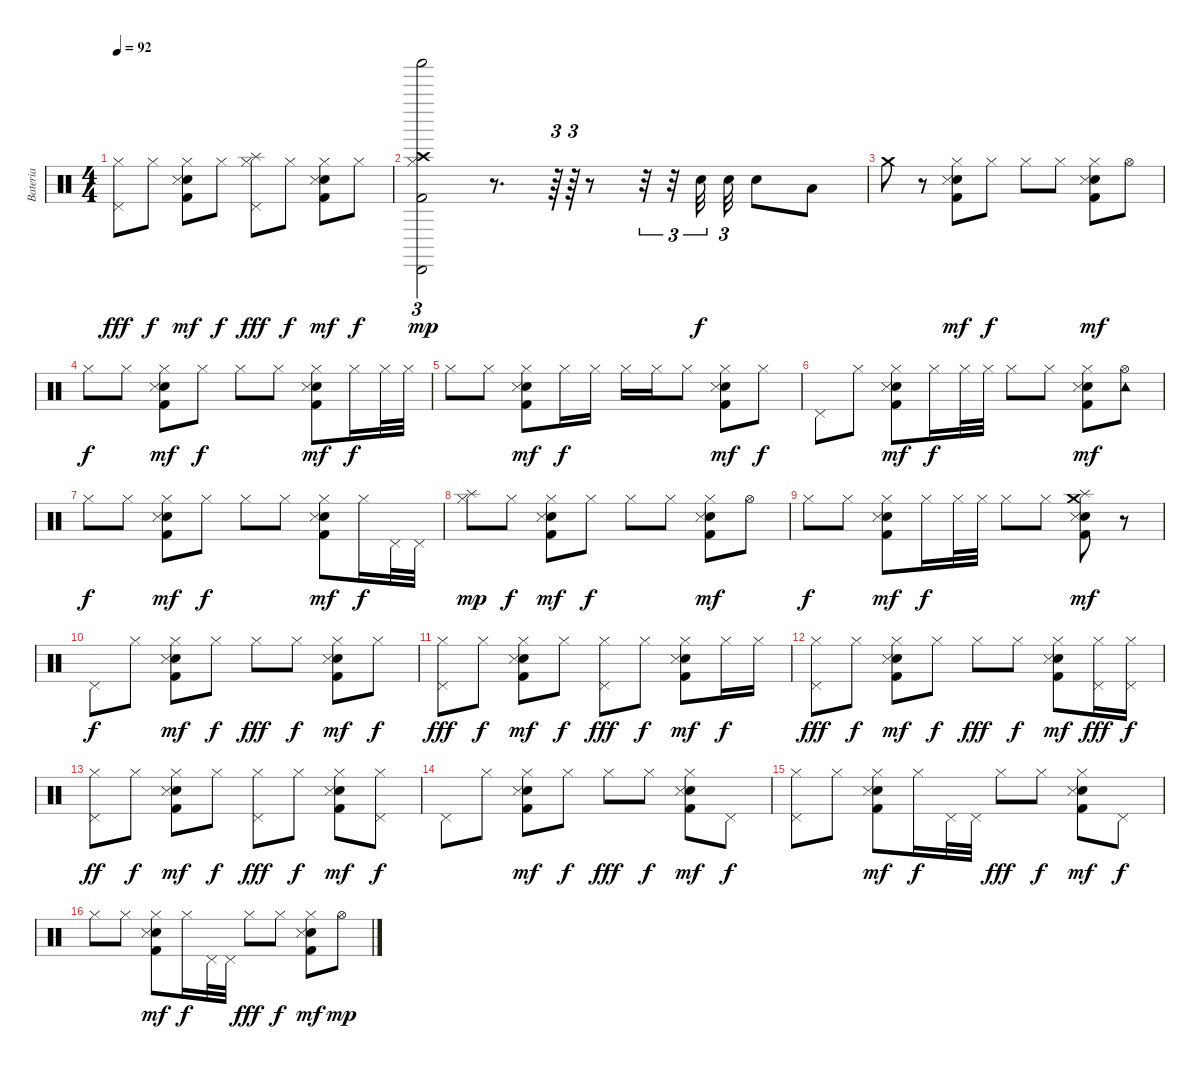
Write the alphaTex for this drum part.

\track ("Bateria" "Bateria") {instrument percussion}
\staff {score}
\articulation defaults
\ts (4 4)
\tempo 92
\clef neutral
\ks c
("Hi-Hat (closed)" "Pedal Hi-Hat (hit)").8{dy fff} "Hi-Hat (closed)".8{dy f} ("Hi-Hat (closed)" "Electric Snare (hit)" "Snare (side stick) 3" "Kick (hit) 2").8{dy mf} "Hi-Hat (closed)".8{dy f} ("Splash (hit)" "Hi-Hat (closed)" "Pedal Hi-Hat (hit)").8{dy fff} "Hi-Hat (closed)".8{dy f} ("Hi-Hat (closed)" "Electric Snare (hit)" "Snare (side stick) 3" "Kick (hit) 2").8{dy mf} "Hi-Hat (closed)".8{dy f} |
("Hi-Hat (closed)" "Cabasa (hit)" "Shaker (hit)" "Crash high (hit)" "Kick (hit) 2").2{tu (3 2) dy mp} r.8{d} r.64{tu (3 2)} r.64{tu (3 2)} r.8 r.32{tu (3 2)} r.32{tu (3 2)} "Electric Snare (hit)".32{tu (3 2) dy f} "Electric Snare (hit)".32{tu (3 2)} "Electric Snare (hit)".8 "Low Tom (hit)".8 |
"Crash medium (hit)".8 r.8 ("Hi-Hat (closed)" "Electric Snare (hit)" "Snare (side stick) 3" "Kick (hit) 2").8{dy mf} "Hi-Hat (closed)".8{dy f} "Hi-Hat (closed)".8 "Hi-Hat (closed)".8 ("Hi-Hat (closed)" "Electric Snare (hit)" "Snare (side stick) 3" "Kick (hit) 2").8{dy mf} "Hi-Hat (open)".8 |
"Hi-Hat (closed)".8{dy f} "Hi-Hat (closed)".8 ("Hi-Hat (closed)" "Electric Snare (hit)" "Snare (side stick) 3" "Kick (hit) 2").8{dy mf} "Hi-Hat (closed)".8{dy f} "Hi-Hat (closed)".8 "Hi-Hat (closed)".8 ("Hi-Hat (closed)" "Electric Snare (hit)" "Snare (side stick) 3" "Kick (hit) 2").8{dy mf} "Hi-Hat (closed)".16{dy f} "Hi-Hat (closed)".32 "Hi-Hat (closed)".32 |
"Hi-Hat (closed)".8 "Hi-Hat (closed)".8 ("Hi-Hat (closed)" "Electric Snare (hit)" "Snare (side stick) 3" "Kick (hit) 2").8{dy mf} "Hi-Hat (closed)".16{dy f} "Hi-Hat (closed)".16 "Hi-Hat (closed)".16 "Hi-Hat (closed)".16 "Hi-Hat (closed)".8 ("Hi-Hat (closed)" "Electric Snare (hit)" "Snare (side stick) 3" "Kick (hit) 2").8{dy mf} "Hi-Hat (closed)".8{dy f} |
"Pedal Hi-Hat (hit)".8 "Hi-Hat (closed)".8 ("Hi-Hat (closed)" "Electric Snare (hit)" "Snare (side stick) 3" "Kick (hit) 2").8{dy mf} "Hi-Hat (closed)".16{dy f} "Hi-Hat (closed)".32 "Hi-Hat (closed)".32 "Hi-Hat (closed)".8 "Hi-Hat (closed)".8 ("Hi-Hat (closed)" "Electric Snare (hit)" "Snare (side stick) 3" "Kick (hit) 2").8{dy mf} ("Tambourine (hit)" "Hi-Hat (open)").8 |
"Hi-Hat (closed)".8{dy f} "Hi-Hat (closed)".8 ("Hi-Hat (closed)" "Electric Snare (hit)" "Snare (side stick) 3" "Kick (hit) 2").8{dy mf} "Hi-Hat (closed)".8{dy f} "Hi-Hat (closed)".8 "Hi-Hat (closed)".8 ("Hi-Hat (closed)" "Electric Snare (hit)" "Snare (side stick) 3" "Kick (hit) 2").8{dy mf} "Hi-Hat (closed)".16{dy f} "Pedal Hi-Hat (hit)".32 "Pedal Hi-Hat (hit)".32 |
("Splash (hit)" "Hi-Hat (closed)").8{dy mp} "Hi-Hat (closed)".8{dy f} ("Hi-Hat (closed)" "Electric Snare (hit)" "Snare (side stick) 3" "Kick (hit) 2").8{dy mf} "Hi-Hat (closed)".8{dy f} "Hi-Hat (closed)".8 "Hi-Hat (closed)".8 ("Hi-Hat (closed)" "Electric Snare (hit)" "Snare (side stick) 3" "Kick (hit) 2").8{dy mf} "Hi-Hat (open)".8 |
"Hi-Hat (closed)".8{dy f} "Hi-Hat (closed)".8 ("Hi-Hat (closed)" "Electric Snare (hit)" "Snare (side stick) 3" "Kick (hit) 2").8{dy mf} "Hi-Hat (closed)".16{dy f} "Hi-Hat (closed)".32 "Hi-Hat (closed)".32 "Hi-Hat (closed)".8 "Hi-Hat (closed)".8 ("Crash medium (hit)" "Splash (hit)" "Electric Snare (hit)" "Snare (side stick) 3" "Kick (hit) 2").8{dy mf} r.8 |
"Pedal Hi-Hat (hit)".8{dy f} "Hi-Hat (closed)".8 ("Hi-Hat (closed)" "Electric Snare (hit)" "Snare (side stick) 3" "Kick (hit) 2").8{dy mf} "Hi-Hat (closed)".8{dy f} "Hi-Hat (closed)".8{dy fff} "Hi-Hat (closed)".8{dy f} ("Hi-Hat (closed)" "Electric Snare (hit)" "Snare (side stick) 3" "Kick (hit) 2").8{dy mf} "Hi-Hat (closed)".8{dy f} |
("Hi-Hat (closed)" "Pedal Hi-Hat (hit)").8{dy fff} "Hi-Hat (closed)".8{dy f} ("Hi-Hat (closed)" "Electric Snare (hit)" "Snare (side stick) 3" "Kick (hit) 2").8{dy mf} "Hi-Hat (closed)".8{dy f} ("Hi-Hat (closed)" "Pedal Hi-Hat (hit)").8{dy fff} "Hi-Hat (closed)".8{dy f} ("Hi-Hat (closed)" "Electric Snare (hit)" "Snare (side stick) 3" "Kick (hit) 2").8{dy mf} "Hi-Hat (closed)".16{dy f} "Hi-Hat (closed)".16 |
("Hi-Hat (closed)" "Pedal Hi-Hat (hit)").8{dy fff} "Hi-Hat (closed)".8{dy f} ("Hi-Hat (closed)" "Electric Snare (hit)" "Snare (side stick) 3" "Kick (hit) 2").8{dy mf} "Hi-Hat (closed)".8{dy f} "Hi-Hat (closed)".8{dy fff} "Hi-Hat (closed)".8{dy f} ("Hi-Hat (closed)" "Electric Snare (hit)" "Snare (side stick) 3" "Kick (hit) 2").8{dy mf} ("Hi-Hat (closed)" "Pedal Hi-Hat (hit)").16{dy fff} ("Hi-Hat (closed)" "Pedal Hi-Hat (hit)").16{dy f} |
("Hi-Hat (closed)" "Pedal Hi-Hat (hit)").8{dy ff} "Hi-Hat (closed)".8{dy f} ("Hi-Hat (closed)" "Electric Snare (hit)" "Snare (side stick) 3" "Kick (hit) 2").8{dy mf} "Hi-Hat (closed)".8{dy f} ("Hi-Hat (closed)" "Pedal Hi-Hat (hit)").8{dy fff} "Hi-Hat (closed)".8{dy f} ("Hi-Hat (closed)" "Electric Snare (hit)" "Snare (side stick) 3" "Kick (hit) 2").8{dy mf} ("Hi-Hat (closed)" "Pedal Hi-Hat (hit)").8{dy f} |
"Pedal Hi-Hat (hit)".8 "Hi-Hat (closed)".8 ("Hi-Hat (closed)" "Electric Snare (hit)" "Snare (side stick) 3" "Kick (hit) 2").8{dy mf} "Hi-Hat (closed)".8{dy f} "Hi-Hat (closed)".8{dy fff} "Hi-Hat (closed)".8{dy f} ("Hi-Hat (closed)" "Electric Snare (hit)" "Snare (side stick) 3" "Kick (hit) 2").8{dy mf} "Pedal Hi-Hat (hit)".8{dy f} |
("Pedal Hi-Hat (hit)" "Hi-Hat (closed)").8 "Hi-Hat (closed)".8 ("Hi-Hat (closed)" "Electric Snare (hit)" "Snare (side stick) 3" "Kick (hit) 2").8{dy mf} "Hi-Hat (closed)".16{dy f} "Pedal Hi-Hat (hit)".32 "Pedal Hi-Hat (hit)".32 "Hi-Hat (closed)".8{dy fff} "Hi-Hat (closed)".8{dy f} ("Hi-Hat (closed)" "Electric Snare (hit)" "Snare (side stick) 3" "Kick (hit) 2").8{dy mf} "Pedal Hi-Hat (hit)".8{dy f} |
"Hi-Hat (closed)".8 "Hi-Hat (closed)".8 ("Hi-Hat (closed)" "Electric Snare (hit)" "Snare (side stick) 3" "Kick (hit) 2").8{dy mf} "Hi-Hat (closed)".16{dy f} "Pedal Hi-Hat (hit)".32 "Pedal Hi-Hat (hit)".32 "Hi-Hat (closed)".8{dy fff} "Hi-Hat (closed)".8{dy f} ("Hi-Hat (closed)" "Electric Snare (hit)" "Snare (side stick) 3" "Kick (hit) 2").8{dy mf} "Hi-Hat (open)".8{dy mp}
